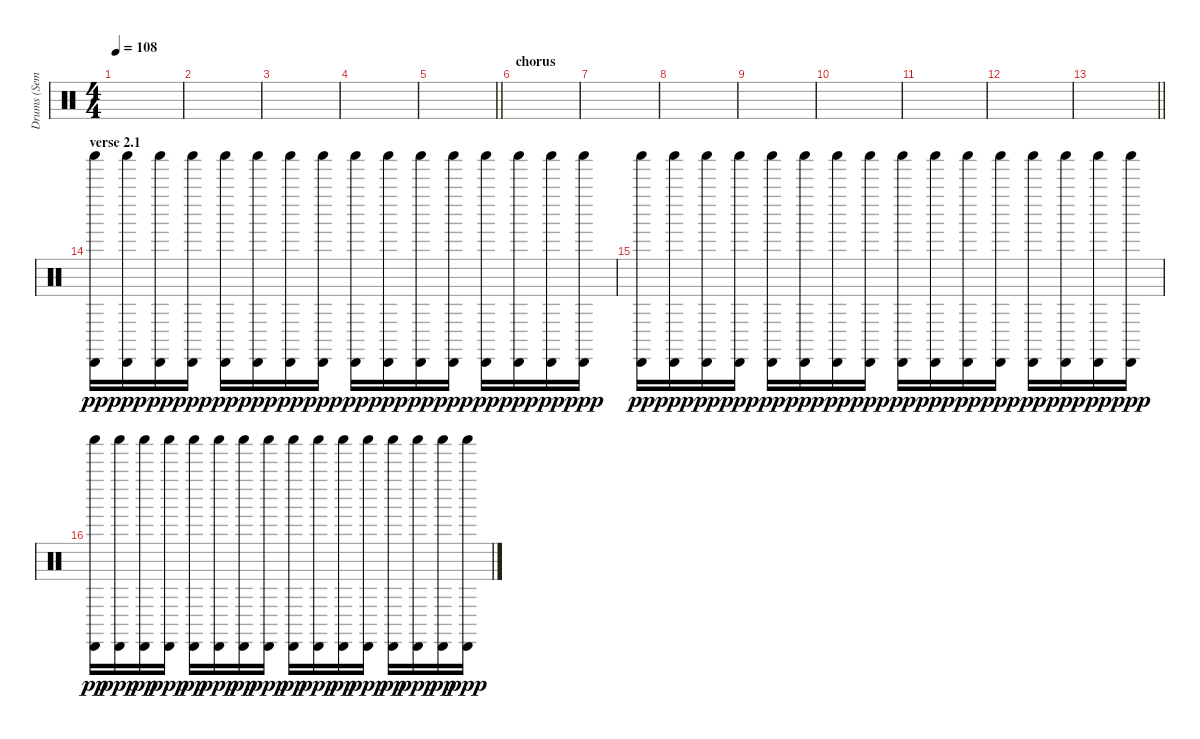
\track ("Drums (Semple)" "Drums (Sem") {instrument percussion}
\staff {score}
\articulation defaults
\ts (4 4)
\tempo 108
\clef neutral
\ks c
|
|
|
|
\barLineRight lightlight
|
\section ("" "chorus")
|
|
|
|
|
|
|
\barLineRight lightlight
|
\section ("" "verse 2.1")
("Cabasa (hit)" "Shaker (hit)").16{dy pp} ("Cabasa (hit)" "Shaker (hit)").16{dy ppp} ("Cabasa (hit)" "Shaker (hit)").16{dy pp} ("Cabasa (hit)" "Shaker (hit)").16{dy ppp} ("Cabasa (hit)" "Shaker (hit)").16{dy pp} ("Cabasa (hit)" "Shaker (hit)").16{dy ppp} ("Cabasa (hit)" "Shaker (hit)").16{dy pp} ("Cabasa (hit)" "Shaker (hit)").16{dy ppp} ("Cabasa (hit)" "Shaker (hit)").16{dy pp} ("Cabasa (hit)" "Shaker (hit)").16{dy ppp} ("Cabasa (hit)" "Shaker (hit)").16{dy pp} ("Cabasa (hit)" "Shaker (hit)").16{dy ppp} ("Cabasa (hit)" "Shaker (hit)").16{dy pp} ("Cabasa (hit)" "Shaker (hit)").16{dy ppp} ("Cabasa (hit)" "Shaker (hit)").16{dy pp} ("Cabasa (hit)" "Shaker (hit)").16{dy ppp} |
("Cabasa (hit)" "Shaker (hit)").16{dy pp} ("Cabasa (hit)" "Shaker (hit)").16{dy ppp} ("Cabasa (hit)" "Shaker (hit)").16{dy pp} ("Cabasa (hit)" "Shaker (hit)").16{dy ppp} ("Cabasa (hit)" "Shaker (hit)").16{dy pp} ("Cabasa (hit)" "Shaker (hit)").16{dy ppp} ("Cabasa (hit)" "Shaker (hit)").16{dy pp} ("Cabasa (hit)" "Shaker (hit)").16{dy ppp} ("Cabasa (hit)" "Shaker (hit)").16{dy pp} ("Cabasa (hit)" "Shaker (hit)").16{dy ppp} ("Cabasa (hit)" "Shaker (hit)").16{dy pp} ("Cabasa (hit)" "Shaker (hit)").16{dy ppp} ("Cabasa (hit)" "Shaker (hit)").16{dy pp} ("Cabasa (hit)" "Shaker (hit)").16{dy ppp} ("Cabasa (hit)" "Shaker (hit)").16{dy pp} ("Cabasa (hit)" "Shaker (hit)").16{dy ppp} |
("Cabasa (hit)" "Shaker (hit)").16{dy pp} ("Cabasa (hit)" "Shaker (hit)").16{dy ppp} ("Cabasa (hit)" "Shaker (hit)").16{dy pp} ("Cabasa (hit)" "Shaker (hit)").16{dy ppp} ("Cabasa (hit)" "Shaker (hit)").16{dy pp} ("Cabasa (hit)" "Shaker (hit)").16{dy ppp} ("Cabasa (hit)" "Shaker (hit)").16{dy pp} ("Cabasa (hit)" "Shaker (hit)").16{dy ppp} ("Cabasa (hit)" "Shaker (hit)").16{dy pp} ("Cabasa (hit)" "Shaker (hit)").16{dy ppp} ("Cabasa (hit)" "Shaker (hit)").16{dy pp} ("Cabasa (hit)" "Shaker (hit)").16{dy ppp} ("Cabasa (hit)" "Shaker (hit)").16{dy pp} ("Cabasa (hit)" "Shaker (hit)").16{dy ppp} ("Cabasa (hit)" "Shaker (hit)").16{dy pp} ("Cabasa (hit)" "Shaker (hit)").16{dy ppp}
